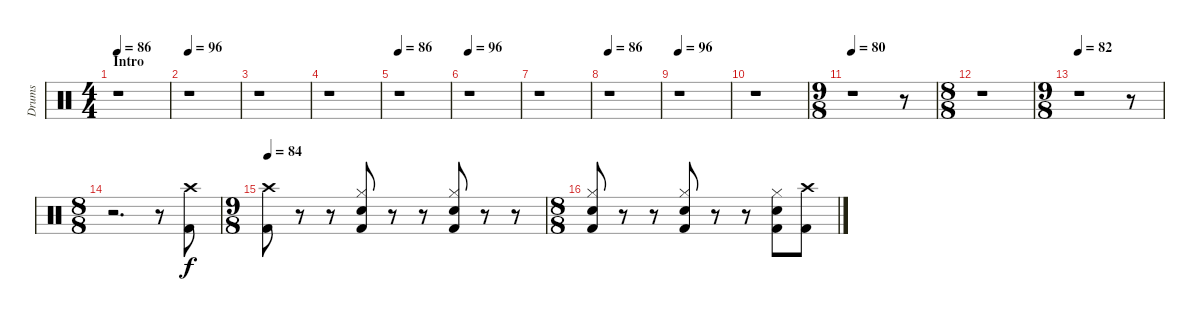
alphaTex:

\track ("Drums" "Drums") {instrument percussion}
\staff {score}
\articulation defaults
\ts (4 4)
\section ("" "Intro")
\tempo 86
\clef neutral
\ks c
r.1{dy f} |
\tempo 96
r.1 |
r.1 |
r.1 |
\tempo 86
r.1 |
\tempo 96
r.1 |
r.1 |
\tempo 86
r.1 |
\tempo 96
r.1 |
r.1 |
\ts (9 8)
\tempo 80
r.1 r.8 |
\ts (8 8)
r.1 |
\ts (9 8)
\tempo 82
r.1 r.8 |
\ts (8 8)
r.2{d} r.8 ("Crash high (hit)" "Kick (hit) 2").8 |
\ts (9 8)
\tempo 84
("Crash high (hit)" "Kick (hit) 2").8 r.8 r.8 ("Hi-Hat (closed)" "Snare (hit) 2" "Kick (hit) 2").8 r.8 r.8 ("Hi-Hat (closed)" "Snare (hit) 2" "Kick (hit) 2").8 r.8 r.8 |
\ts (8 8)
("Hi-Hat (closed)" "Snare (hit) 2" "Kick (hit) 2").8 r.8 r.8 ("Hi-Hat (closed)" "Snare (hit) 2" "Kick (hit) 2").8 r.8 r.8 ("Hi-Hat (closed)" "Snare (hit) 2" "Kick (hit) 2").8 ("Crash high (hit)" "Kick (hit) 2").8
